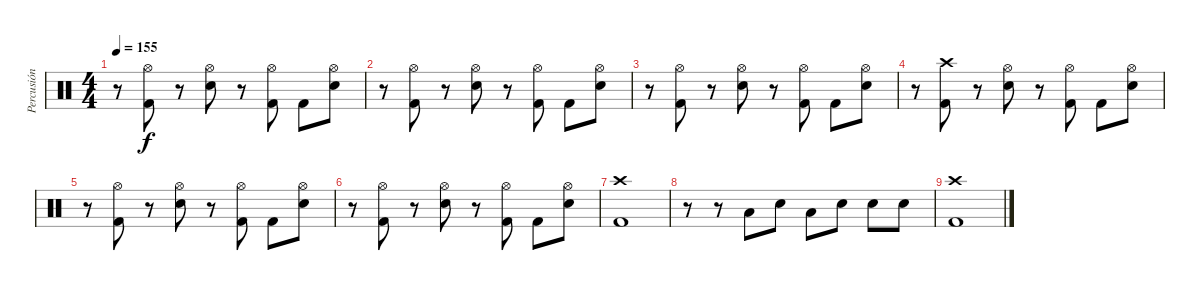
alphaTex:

\track ("Percusión" "Percusión") {instrument percussion}
\staff {score}
\articulation defaults
\ts (4 4)
\tempo 155
\clef neutral
\ks c
r.8{dy f} ("Hi-Hat (open)" "Kick (hit) 2").8 r.8 ("Hi-Hat (open)" "Electric Snare (hit)").8 r.8 ("Hi-Hat (open)" "Kick (hit) 2").8 "Kick (hit) 2".8 ("Hi-Hat (open)" "Electric Snare (hit)").8 |
r.8 ("Hi-Hat (open)" "Kick (hit) 2").8 r.8 ("Hi-Hat (open)" "Electric Snare (hit)").8 r.8 ("Hi-Hat (open)" "Kick (hit) 2").8 "Kick (hit) 2".8 ("Hi-Hat (open)" "Electric Snare (hit)").8 |
r.8 ("Hi-Hat (open)" "Kick (hit) 2").8 r.8 ("Hi-Hat (open)" "Electric Snare (hit)").8 r.8 ("Hi-Hat (open)" "Kick (hit) 2").8 "Kick (hit) 2".8 ("Hi-Hat (open)" "Electric Snare (hit)").8 |
r.8 ("Crash high (hit)" "Kick (hit) 2").8 r.8 ("Hi-Hat (open)" "Electric Snare (hit)").8 r.8 ("Hi-Hat (open)" "Kick (hit) 2").8 "Kick (hit) 2".8 ("Hi-Hat (open)" "Electric Snare (hit)").8 |
r.8 ("Hi-Hat (open)" "Kick (hit) 2").8 r.8 ("Hi-Hat (open)" "Electric Snare (hit)").8 r.8 ("Hi-Hat (open)" "Kick (hit) 2").8 "Kick (hit) 2".8 ("Hi-Hat (open)" "Electric Snare (hit)").8 |
r.8 ("Hi-Hat (open)" "Kick (hit) 2").8 r.8 ("Hi-Hat (open)" "Electric Snare (hit)").8 r.8 ("Hi-Hat (open)" "Kick (hit) 2").8 "Kick (hit) 2".8 ("Hi-Hat (open)" "Electric Snare (hit)").8 |
("Crash high (hit)" "Kick (hit) 2").1 |
r.8 r.8 "Low Tom (hit)".8 "Electric Snare (hit)".8 "Low Tom (hit)".8 "Electric Snare (hit)".8 "Electric Snare (hit)".8 "Electric Snare (hit)".8 |
("Crash high (hit)" "Kick (hit) 2").1
